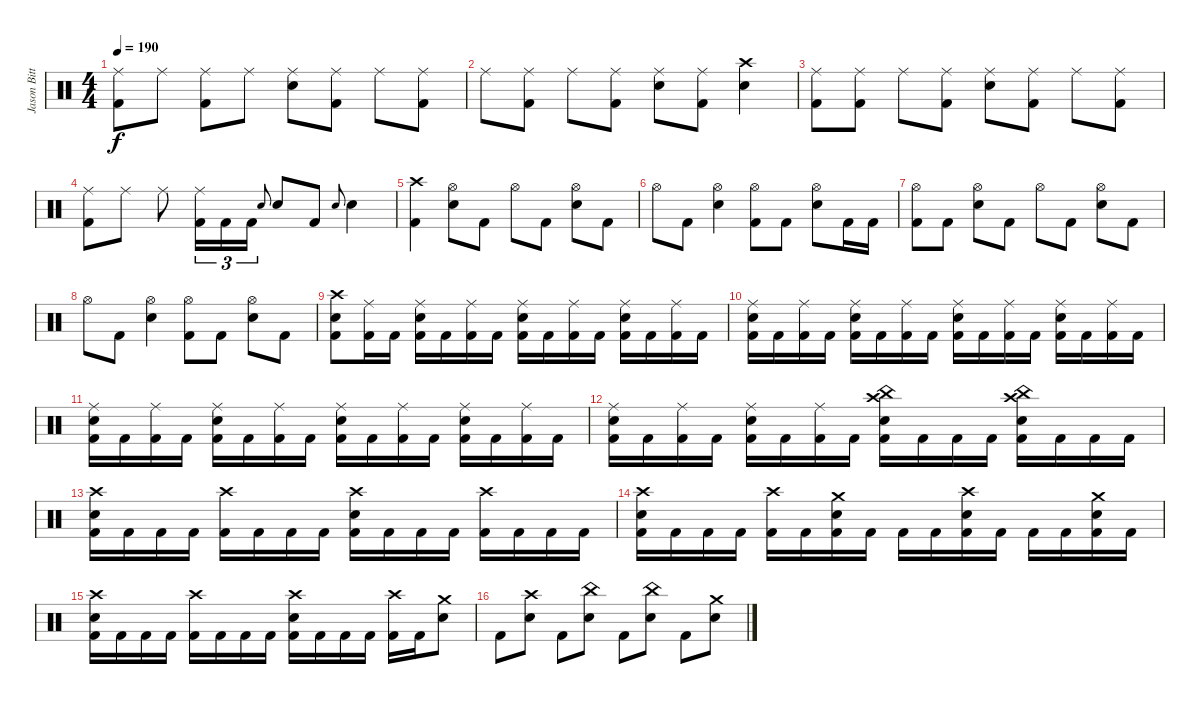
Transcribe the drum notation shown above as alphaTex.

\track ("Jason Bittner" "Jason Bitt") {instrument percussion}
\staff {score}
\articulation defaults
\ts (4 4)
\tempo 190
\clef neutral
\ks c
("Ride (middle)" "Kick (hit) 2").8{dy f} "Ride (middle)".8 ("Ride (middle)" "Kick (hit) 2").8 "Ride (middle)".8 ("Ride (middle)" "Electric Snare (hit)").8 ("Ride (middle)" "Kick (hit) 2").8 "Ride (middle)".8 ("Ride (middle)" "Kick (hit) 2").8 |
"Ride (middle)".8 ("Ride (middle)" "Kick (hit) 2").8 "Ride (middle)".8 ("Ride (middle)" "Kick (hit) 2").8 ("Ride (middle)" "Electric Snare (hit)").8 ("Ride (middle)" "Kick (hit) 2").8 ("Crash high (hit)" "Electric Snare (hit)").4 |
("Ride (middle)" "Kick (hit) 2").8 ("Ride (middle)" "Kick (hit) 2").8 "Ride (middle)".8 ("Ride (middle)" "Kick (hit) 2").8 ("Ride (middle)" "Electric Snare (hit)").8 ("Ride (middle)" "Kick (hit) 2").8 "Ride (middle)".8 ("Ride (middle)" "Kick (hit) 2").8 |
("Ride (middle)" "Kick (hit) 2").8 "Ride (middle)".8 "Ride (middle)".8 ("Ride (middle)" "Kick (hit) 2").16{tu (3 2)} "Kick (hit) 2".16{tu (3 2)} "Kick (hit) 2".16{tu (3 2)} "Electric Snare (hit)".8{gr onbeat} "Electric Snare (hit)".8 "Kick (hit) 2".8 "Electric Snare (hit)".8{gr onbeat} "Electric Snare (hit)".4 |
("Crash high (hit)" "Kick (hit) 2").4 ("Hi-Hat (open)" "Electric Snare (hit)").8 "Kick (hit) 2".8 "Hi-Hat (open)".8 "Kick (hit) 2".8 ("Hi-Hat (open)" "Electric Snare (hit)").8 "Kick (hit) 2".8 |
"Hi-Hat (open)".8 "Kick (hit) 2".8 ("Hi-Hat (open)" "Electric Snare (hit)").4 ("Hi-Hat (open)" "Kick (hit) 2").8 "Kick (hit) 2".8 ("Hi-Hat (open)" "Electric Snare (hit)").8 "Kick (hit) 2".16 "Kick (hit) 2".16 |
("Hi-Hat (open)" "Kick (hit) 2").8 "Kick (hit) 2".8 ("Hi-Hat (open)" "Electric Snare (hit)").8 "Kick (hit) 2".8 "Hi-Hat (open)".8 "Kick (hit) 2".8 ("Hi-Hat (open)" "Electric Snare (hit)").8 "Kick (hit) 2".8 |
"Hi-Hat (open)".8 "Kick (hit) 2".8 ("Hi-Hat (open)" "Electric Snare (hit)").4 ("Hi-Hat (open)" "Kick (hit) 2").8 "Kick (hit) 2".8 ("Hi-Hat (open)" "Electric Snare (hit)").8 "Kick (hit) 2".8 |
("Crash high (hit)" "Electric Snare (hit)" "Kick (hit) 2").8 ("Ride (middle)" "Kick (hit) 2").16 "Kick (hit) 2".16 ("Ride (middle)" "Electric Snare (hit)" "Kick (hit) 2").16 "Kick (hit) 2".16 ("Ride (middle)" "Kick (hit) 2").16 "Kick (hit) 2".16 ("Ride (middle)" "Electric Snare (hit)" "Kick (hit) 2").16 "Kick (hit) 2".16 ("Ride (middle)" "Kick (hit) 2").16 "Kick (hit) 2".16 ("Ride (middle)" "Electric Snare (hit)" "Kick (hit) 2").16 "Kick (hit) 2".16 ("Ride (middle)" "Kick (hit) 2").16 "Kick (hit) 2".16 |
("Ride (middle)" "Electric Snare (hit)" "Kick (hit) 2").16 "Kick (hit) 2".16 ("Ride (middle)" "Kick (hit) 2").16 "Kick (hit) 2".16 ("Ride (middle)" "Electric Snare (hit)" "Kick (hit) 2").16 "Kick (hit) 2".16 ("Ride (middle)" "Kick (hit) 2").16 "Kick (hit) 2".16 ("Ride (middle)" "Electric Snare (hit)" "Kick (hit) 2").16 "Kick (hit) 2".16 ("Ride (middle)" "Kick (hit) 2").16 "Kick (hit) 2".16 ("Ride (middle)" "Electric Snare (hit)" "Kick (hit) 2").16 "Kick (hit) 2".16 ("Ride (middle)" "Kick (hit) 2").16 "Kick (hit) 2".16 |
("Ride (middle)" "Electric Snare (hit)" "Kick (hit) 2").16 "Kick (hit) 2".16 ("Ride (middle)" "Kick (hit) 2").16 "Kick (hit) 2".16 ("Ride (middle)" "Electric Snare (hit)" "Kick (hit) 2").16 "Kick (hit) 2".16 ("Ride (middle)" "Kick (hit) 2").16 "Kick (hit) 2".16 ("Ride (middle)" "Electric Snare (hit)" "Kick (hit) 2").16 "Kick (hit) 2".16 ("Ride (middle)" "Kick (hit) 2").16 "Kick (hit) 2".16 ("Ride (middle)" "Electric Snare (hit)" "Kick (hit) 2").16 "Kick (hit) 2".16 ("Ride (middle)" "Kick (hit) 2").16 "Kick (hit) 2".16 |
("Ride (middle)" "Electric Snare (hit)" "Kick (hit) 2").16 "Kick (hit) 2".16 ("Ride (middle)" "Kick (hit) 2").16 "Kick (hit) 2".16 ("Ride (middle)" "Electric Snare (hit)" "Kick (hit) 2").16 "Kick (hit) 2".16 ("Ride (middle)" "Kick (hit) 2").16 "Kick (hit) 2".16 ("China (hit)" "Crash high (hit)" "Electric Snare (hit)" "Kick (hit) 2").16 "Kick (hit) 2".16 "Kick (hit) 2".16 "Kick (hit) 2".16 ("China (hit)" "Crash high (hit)" "Electric Snare (hit)" "Kick (hit) 2").16 "Kick (hit) 2".16 "Kick (hit) 2".16 "Kick (hit) 2".16 |
("Crash high (hit)" "Electric Snare (hit)" "Kick (hit) 2").16 "Kick (hit) 2".16 "Kick (hit) 2".16 "Kick (hit) 2".16 ("Crash high (hit)" "Kick (hit) 2").16 "Kick (hit) 2".16 "Kick (hit) 2".16 "Kick (hit) 2".16 ("Crash high (hit)" "Electric Snare (hit)" "Kick (hit) 2").16 "Kick (hit) 2".16 "Kick (hit) 2".16 "Kick (hit) 2".16 ("Crash high (hit)" "Kick (hit) 2").16 "Kick (hit) 2".16 "Kick (hit) 2".16 "Kick (hit) 2".16 |
("Crash high (hit)" "Electric Snare (hit)" "Kick (hit) 2").16 "Kick (hit) 2".16 "Kick (hit) 2".16 "Kick (hit) 2".16 ("Crash high (hit)" "Kick (hit) 2").16 "Kick (hit) 2".16 ("Crash medium (hit)" "Electric Snare (hit)" "Kick (hit) 2").16 "Kick (hit) 2".16 "Kick (hit) 2".16 "Kick (hit) 2".16 ("Crash high (hit)" "Electric Snare (hit)" "Kick (hit) 2").16 "Kick (hit) 2".16 "Kick (hit) 2".16 "Kick (hit) 2".16 ("Crash medium (hit)" "Electric Snare (hit)" "Kick (hit) 2").16 "Kick (hit) 2".16 |
("Crash high (hit)" "Electric Snare (hit)" "Kick (hit) 2").16 "Kick (hit) 2".16 "Kick (hit) 2".16 "Kick (hit) 2".16 ("Crash high (hit)" "Kick (hit) 2").16 "Kick (hit) 2".16 "Kick (hit) 2".16 "Kick (hit) 2".16 ("Crash high (hit)" "Electric Snare (hit)" "Kick (hit) 2").16 "Kick (hit) 2".16 "Kick (hit) 2".16 "Kick (hit) 2".16 ("Crash high (hit)" "Kick (hit) 2").16 "Kick (hit) 2".16 ("Crash medium (hit)" "Electric Snare (hit)").8 |
"Kick (hit) 2".8 ("Crash high (hit)" "Electric Snare (hit)").8 "Kick (hit) 2".8 ("China (hit)" "Electric Snare (hit)").8 "Kick (hit) 2".8 ("China (hit)" "Electric Snare (hit)").8 "Kick (hit) 2".8 ("Crash medium (hit)" "Electric Snare (hit)").8
